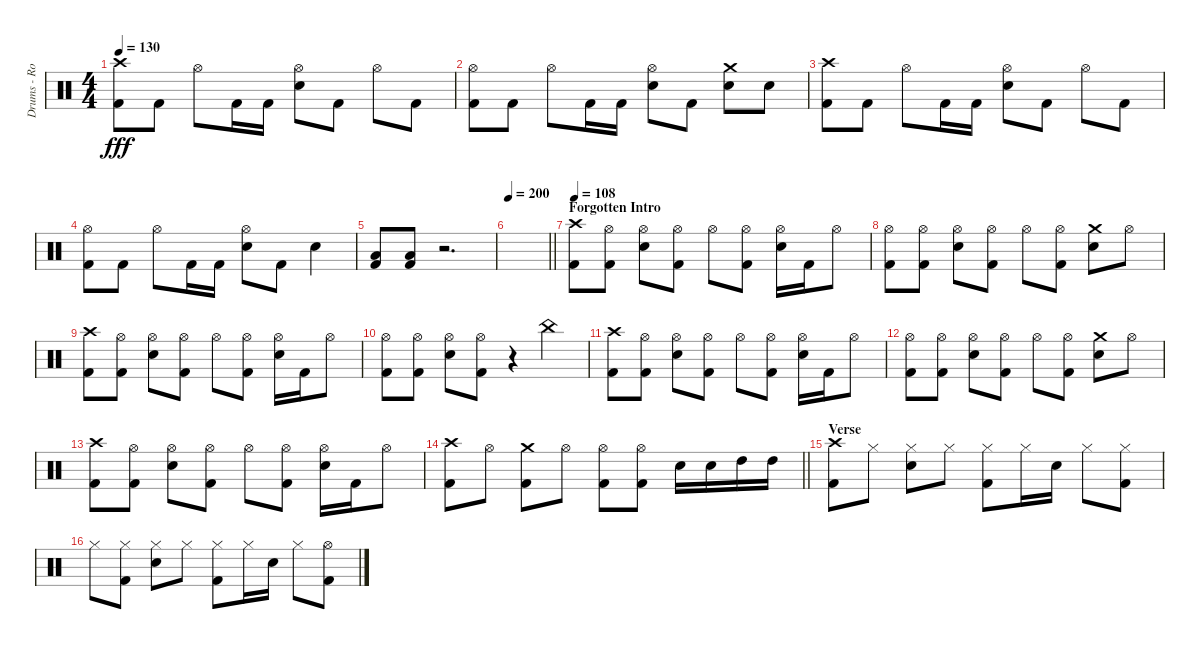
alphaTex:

\track ("Drums - Rob Bourdon" "Drums - Ro") {instrument percussion}
\staff {score}
\articulation defaults
\ts (4 4)
\tempo 130
\clef neutral
\ks c
("Crash high (hit)" "Kick (hit) 2").8{dy fff} "Kick (hit) 2".8 "Hi-Hat (open)".8 "Kick (hit) 2".16 "Kick (hit) 2".16 ("Hi-Hat (open)" "Snare (hit) 2").8 "Kick (hit) 2".8 "Hi-Hat (open)".8 "Kick (hit) 2".8 |
("Hi-Hat (open)" "Kick (hit) 2").8 "Kick (hit) 2".8 "Hi-Hat (open)".8 "Kick (hit) 2".16 "Kick (hit) 2".16 ("Hi-Hat (open)" "Snare (hit) 2").8 "Kick (hit) 2".8 ("Crash medium (hit)" "Snare (hit) 2").8 "Snare (hit) 2".8 |
("Crash high (hit)" "Kick (hit) 2").8 "Kick (hit) 2".8 "Hi-Hat (open)".8 "Kick (hit) 2".16 "Kick (hit) 2".16 ("Hi-Hat (open)" "Snare (hit) 2").8 "Kick (hit) 2".8 "Hi-Hat (open)".8 "Kick (hit) 2".8 |
("Hi-Hat (open)" "Kick (hit) 2").8 "Kick (hit) 2".8 "Hi-Hat (open)".8 "Kick (hit) 2".16 "Kick (hit) 2".16 ("Hi-Hat (open)" "Snare (hit) 2").8 "Kick (hit) 2".8 "Snare (hit) 2".4 |
("Low Tom (hit)" "Kick (hit) 2").8 ("Low Tom (hit)" "Kick (hit) 2").8 r.2{d} |
\tempo 200
\barLineRight lightlight
|
\section ("" "Forgotten Intro")
\tempo 108
("Crash high (hit)" "Kick (hit) 2").8 ("Hi-Hat (open)" "Kick (hit) 2").8 ("Hi-Hat (open)" "Snare (hit) 2").8 ("Hi-Hat (open)" "Kick (hit) 2").8 "Hi-Hat (open)".8 ("Hi-Hat (open)" "Kick (hit) 2").8 ("Hi-Hat (open)" "Snare (hit) 2").16 "Kick (hit) 2".16 "Hi-Hat (open)".8 |
("Hi-Hat (open)" "Kick (hit) 2").8 ("Hi-Hat (open)" "Kick (hit) 2").8 ("Hi-Hat (open)" "Snare (hit) 2").8 ("Hi-Hat (open)" "Kick (hit) 2").8 "Hi-Hat (open)".8 ("Hi-Hat (open)" "Kick (hit) 2").8 ("Crash medium (hit)" "Snare (hit) 2").8 "Hi-Hat (open)".8 |
("Crash high (hit)" "Kick (hit) 2").8 ("Hi-Hat (open)" "Kick (hit) 2").8 ("Hi-Hat (open)" "Snare (hit) 2").8 ("Hi-Hat (open)" "Kick (hit) 2").8 "Hi-Hat (open)".8 ("Hi-Hat (open)" "Kick (hit) 2").8 ("Hi-Hat (open)" "Snare (hit) 2").16 "Kick (hit) 2".16 "Hi-Hat (open)".8 |
("Hi-Hat (open)" "Kick (hit) 2").8 ("Hi-Hat (open)" "Kick (hit) 2").8 ("Hi-Hat (open)" "Snare (hit) 2").8 ("Hi-Hat (open)" "Kick (hit) 2").8 r.4 "China (hit)".4 |
("Crash high (hit)" "Kick (hit) 2").8 ("Hi-Hat (open)" "Kick (hit) 2").8 ("Hi-Hat (open)" "Snare (hit) 2").8 ("Hi-Hat (open)" "Kick (hit) 2").8 "Hi-Hat (open)".8 ("Hi-Hat (open)" "Kick (hit) 2").8 ("Hi-Hat (open)" "Snare (hit) 2").16 "Kick (hit) 2".16 "Hi-Hat (open)".8 |
("Hi-Hat (open)" "Kick (hit) 2").8 ("Hi-Hat (open)" "Kick (hit) 2").8 ("Hi-Hat (open)" "Snare (hit) 2").8 ("Hi-Hat (open)" "Kick (hit) 2").8 "Hi-Hat (open)".8 ("Hi-Hat (open)" "Kick (hit) 2").8 ("Crash medium (hit)" "Snare (hit) 2").8 "Hi-Hat (open)".8 |
("Crash high (hit)" "Kick (hit) 2").8 ("Hi-Hat (open)" "Kick (hit) 2").8 ("Hi-Hat (open)" "Snare (hit) 2").8 ("Hi-Hat (open)" "Kick (hit) 2").8 "Hi-Hat (open)".8 ("Hi-Hat (open)" "Kick (hit) 2").8 ("Hi-Hat (open)" "Snare (hit) 2").16 "Kick (hit) 2".16 "Hi-Hat (open)".8 |
\barLineRight lightlight
("Crash high (hit)" "Kick (hit) 2").8 "Hi-Hat (open)".8 ("Crash medium (hit)" "Kick (hit) 2").8 "Hi-Hat (open)".8 ("Hi-Hat (open)" "Kick (hit) 2").8 ("Hi-Hat (open)" "Kick (hit) 2").8 "Snare (hit) 2".16 "Snare (hit) 2".16 "High Tom (hit)".16 "High Tom (hit)".16 |
\section ("" "Verse")
("Crash high (hit)" "Kick (hit) 2").8 "Hi-Hat (closed)".8 ("Hi-Hat (closed)" "Snare (hit) 2").8 "Hi-Hat (closed)".8 ("Hi-Hat (closed)" "Kick (hit) 2").8 "Hi-Hat (closed)".16 "Snare (hit) 2".16 "Hi-Hat (closed)".8 ("Hi-Hat (closed)" "Kick (hit) 2").8 |
"Hi-Hat (closed)".8 ("Hi-Hat (closed)" "Kick (hit) 2").8 ("Hi-Hat (closed)" "Snare (hit) 2").8 "Hi-Hat (closed)".8 ("Hi-Hat (closed)" "Kick (hit) 2").8 "Hi-Hat (closed)".16 "Snare (hit) 2".16 "Hi-Hat (closed)".8 ("Hi-Hat (open)" "Kick (hit) 2").8
